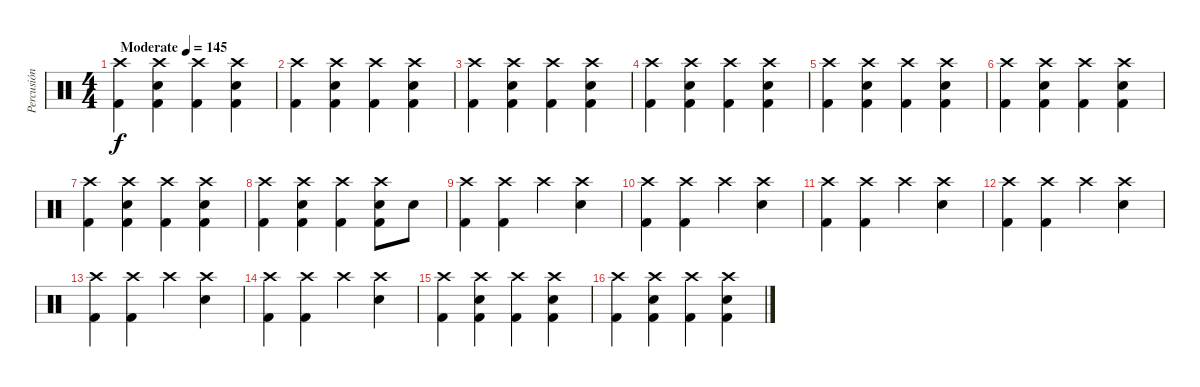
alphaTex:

\track ("Percusión" "Percusión") {instrument percussion}
\staff {score}
\articulation defaults
\ts (4 4)
\tempo (145 "Moderate")
\clef neutral
\ks c
("Crash high (hit)" "Kick (hit) 2").4{dy f} ("Crash high (hit)" "Electric Snare (hit)" "Kick (hit) 2").4 ("Crash high (hit)" "Kick (hit) 2").4 ("Crash high (hit)" "Electric Snare (hit)" "Kick (hit) 2").4 |
("Crash high (hit)" "Kick (hit) 2").4 ("Crash high (hit)" "Electric Snare (hit)" "Kick (hit) 2").4 ("Crash high (hit)" "Kick (hit) 2").4 ("Crash high (hit)" "Electric Snare (hit)" "Kick (hit) 2").4 |
("Crash high (hit)" "Kick (hit) 2").4 ("Crash high (hit)" "Electric Snare (hit)" "Kick (hit) 2").4 ("Crash high (hit)" "Kick (hit) 2").4 ("Crash high (hit)" "Electric Snare (hit)" "Kick (hit) 2").4 |
("Crash high (hit)" "Kick (hit) 2").4 ("Crash high (hit)" "Electric Snare (hit)" "Kick (hit) 2").4 ("Crash high (hit)" "Kick (hit) 2").4 ("Crash high (hit)" "Electric Snare (hit)" "Kick (hit) 2").4 |
("Crash high (hit)" "Kick (hit) 2").4 ("Crash high (hit)" "Electric Snare (hit)" "Kick (hit) 2").4 ("Crash high (hit)" "Kick (hit) 2").4 ("Crash high (hit)" "Electric Snare (hit)" "Kick (hit) 2").4 |
("Crash high (hit)" "Kick (hit) 2").4 ("Crash high (hit)" "Electric Snare (hit)" "Kick (hit) 2").4 ("Crash high (hit)" "Kick (hit) 2").4 ("Crash high (hit)" "Electric Snare (hit)" "Kick (hit) 2").4 |
("Crash high (hit)" "Kick (hit) 2").4 ("Crash high (hit)" "Electric Snare (hit)" "Kick (hit) 2").4 ("Crash high (hit)" "Kick (hit) 2").4 ("Crash high (hit)" "Electric Snare (hit)" "Kick (hit) 2").4 |
("Crash high (hit)" "Kick (hit) 2").4 ("Crash high (hit)" "Electric Snare (hit)" "Kick (hit) 2").4 ("Crash high (hit)" "Kick (hit) 2").4 ("Crash high (hit)" "Electric Snare (hit)" "Kick (hit) 2").8 "Electric Snare (hit)".8 |
("Crash high (hit)" "Kick (hit) 2").4 ("Crash high (hit)" "Kick (hit) 2").4 "Crash high (hit)".4 ("Crash high (hit)" "Electric Snare (hit)").4 |
("Crash high (hit)" "Kick (hit) 2").4 ("Crash high (hit)" "Kick (hit) 2").4 "Crash high (hit)".4 ("Crash high (hit)" "Electric Snare (hit)").4 |
("Crash high (hit)" "Kick (hit) 2").4 ("Crash high (hit)" "Kick (hit) 2").4 "Crash high (hit)".4 ("Crash high (hit)" "Electric Snare (hit)").4 |
("Crash high (hit)" "Kick (hit) 2").4 ("Crash high (hit)" "Kick (hit) 2").4 "Crash high (hit)".4 ("Crash high (hit)" "Electric Snare (hit)").4 |
("Crash high (hit)" "Kick (hit) 2").4 ("Crash high (hit)" "Kick (hit) 2").4 "Crash high (hit)".4 ("Crash high (hit)" "Electric Snare (hit)").4 |
("Crash high (hit)" "Kick (hit) 2").4 ("Crash high (hit)" "Kick (hit) 2").4 "Crash high (hit)".4 ("Crash high (hit)" "Electric Snare (hit)").4 |
("Crash high (hit)" "Kick (hit) 2").4 ("Crash high (hit)" "Electric Snare (hit)" "Kick (hit) 2").4 ("Crash high (hit)" "Kick (hit) 2").4 ("Crash high (hit)" "Electric Snare (hit)" "Kick (hit) 2").4 |
("Crash high (hit)" "Kick (hit) 2").4 ("Crash high (hit)" "Electric Snare (hit)" "Kick (hit) 2").4 ("Crash high (hit)" "Kick (hit) 2").4 ("Crash high (hit)" "Electric Snare (hit)" "Kick (hit) 2").4
